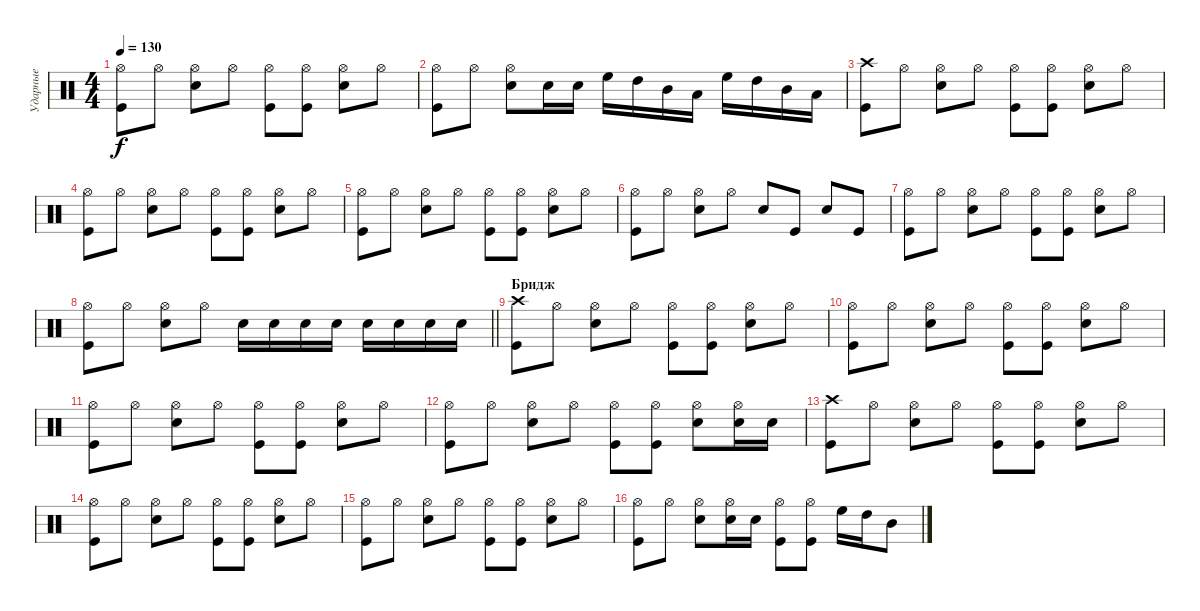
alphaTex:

\track ("Ударные" "Ударные") {instrument percussion}
\staff {score}
\articulation defaults
\ts (4 4)
\tempo 130
\clef neutral
\ks c
("Hi-Hat (open)" "Kick (hit)").8{dy f} "Hi-Hat (open)".8 ("Hi-Hat (open)" "Snare (hit) 2").8 "Hi-Hat (open)".8 ("Hi-Hat (open)" "Kick (hit)").8 ("Hi-Hat (open)" "Kick (hit)").8 ("Hi-Hat (open)" "Snare (hit) 2").8 "Hi-Hat (open)".8 |
("Hi-Hat (open)" "Kick (hit)").8 "Hi-Hat (open)".8 ("Hi-Hat (open)" "Snare (hit) 2").8 "Snare (hit) 2".16 "Snare (hit) 2".16 "High Floor Tom (hit)".16 "High Tom (hit)".16 "Mid Tom (hit)".16 "Low Tom (hit)".16 "High Floor Tom (hit)".16 "High Tom (hit)".16 "Mid Tom (hit)".16 "Low Tom (hit)".16 |
("Crash high (hit)" "Kick (hit)").8 "Hi-Hat (open)".8 ("Hi-Hat (open)" "Snare (hit) 2").8 "Hi-Hat (open)".8 ("Hi-Hat (open)" "Kick (hit)").8 ("Hi-Hat (open)" "Kick (hit)").8 ("Hi-Hat (open)" "Snare (hit) 2").8 "Hi-Hat (open)".8 |
("Hi-Hat (open)" "Kick (hit)").8 "Hi-Hat (open)".8 ("Hi-Hat (open)" "Snare (hit) 2").8 "Hi-Hat (open)".8 ("Hi-Hat (open)" "Kick (hit)").8 ("Hi-Hat (open)" "Kick (hit)").8 ("Hi-Hat (open)" "Snare (hit) 2").8 "Hi-Hat (open)".8 |
("Hi-Hat (open)" "Kick (hit)").8 "Hi-Hat (open)".8 ("Hi-Hat (open)" "Snare (hit) 2").8 "Hi-Hat (open)".8 ("Hi-Hat (open)" "Kick (hit)").8 ("Hi-Hat (open)" "Kick (hit)").8 ("Hi-Hat (open)" "Snare (hit) 2").8 "Hi-Hat (open)".8 |
("Hi-Hat (open)" "Kick (hit)").8 "Hi-Hat (open)".8 ("Hi-Hat (open)" "Snare (hit) 2").8 "Hi-Hat (open)".8 "Snare (hit) 2".8 "Kick (hit)".8 "Snare (hit) 2".8 "Kick (hit)".8 |
("Hi-Hat (open)" "Kick (hit)").8 "Hi-Hat (open)".8 ("Hi-Hat (open)" "Snare (hit) 2").8 "Hi-Hat (open)".8 ("Hi-Hat (open)" "Kick (hit)").8 ("Hi-Hat (open)" "Kick (hit)").8 ("Hi-Hat (open)" "Snare (hit) 2").8 "Hi-Hat (open)".8 |
\barLineRight lightlight
("Hi-Hat (open)" "Kick (hit)").8 "Hi-Hat (open)".8 ("Hi-Hat (open)" "Snare (hit) 2").8 "Hi-Hat (open)".8 "Snare (hit) 2".16 "Snare (hit) 2".16 "Snare (hit) 2".16 "Snare (hit) 2".16 "Snare (hit) 2".16 "Snare (hit) 2".16 "Snare (hit) 2".16 "Snare (hit) 2".16 |
\section ("" "Бридж")
("Crash high (hit)" "Kick (hit)").8 "Hi-Hat (open)".8 ("Hi-Hat (open)" "Snare (hit) 2").8 "Hi-Hat (open)".8 ("Hi-Hat (open)" "Kick (hit)").8 ("Hi-Hat (open)" "Kick (hit)").8 ("Hi-Hat (open)" "Snare (hit) 2").8 "Hi-Hat (open)".8 |
("Hi-Hat (open)" "Kick (hit)").8 "Hi-Hat (open)".8 ("Hi-Hat (open)" "Snare (hit) 2").8 "Hi-Hat (open)".8 ("Hi-Hat (open)" "Kick (hit)").8 ("Hi-Hat (open)" "Kick (hit)").8 ("Hi-Hat (open)" "Snare (hit) 2").8 "Hi-Hat (open)".8 |
("Hi-Hat (open)" "Kick (hit)").8 "Hi-Hat (open)".8 ("Hi-Hat (open)" "Snare (hit) 2").8 "Hi-Hat (open)".8 ("Hi-Hat (open)" "Kick (hit)").8 ("Hi-Hat (open)" "Kick (hit)").8 ("Hi-Hat (open)" "Snare (hit) 2").8 "Hi-Hat (open)".8 |
("Hi-Hat (open)" "Kick (hit)").8 "Hi-Hat (open)".8 ("Hi-Hat (open)" "Snare (hit) 2").8 "Hi-Hat (open)".8 ("Hi-Hat (open)" "Kick (hit)").8 ("Hi-Hat (open)" "Kick (hit)").8 ("Hi-Hat (open)" "Snare (hit) 2").8 ("Hi-Hat (open)" "Snare (hit) 2").16 "Snare (hit) 2".16 |
("Crash high (hit)" "Kick (hit)").8 "Hi-Hat (open)".8 ("Hi-Hat (open)" "Snare (hit) 2").8 "Hi-Hat (open)".8 ("Hi-Hat (open)" "Kick (hit)").8 ("Hi-Hat (open)" "Kick (hit)").8 ("Hi-Hat (open)" "Snare (hit) 2").8 "Hi-Hat (open)".8 |
("Hi-Hat (open)" "Kick (hit)").8 "Hi-Hat (open)".8 ("Hi-Hat (open)" "Snare (hit) 2").8 "Hi-Hat (open)".8 ("Hi-Hat (open)" "Kick (hit)").8 ("Hi-Hat (open)" "Kick (hit)").8 ("Hi-Hat (open)" "Snare (hit) 2").8 "Hi-Hat (open)".8 |
("Hi-Hat (open)" "Kick (hit)").8 "Hi-Hat (open)".8 ("Hi-Hat (open)" "Snare (hit) 2").8 "Hi-Hat (open)".8 ("Hi-Hat (open)" "Kick (hit)").8 ("Hi-Hat (open)" "Kick (hit)").8 ("Hi-Hat (open)" "Snare (hit) 2").8 "Hi-Hat (open)".8 |
("Hi-Hat (open)" "Kick (hit)").8 "Hi-Hat (open)".8 ("Hi-Hat (open)" "Snare (hit) 2").8 ("Hi-Hat (open)" "Snare (hit) 2").16 "Snare (hit) 2".16 ("Hi-Hat (open)" "Kick (hit)").8 ("Hi-Hat (open)" "Kick (hit)").8 "High Floor Tom (hit)".16 "High Tom (hit)".16 "Mid Tom (hit)".8
